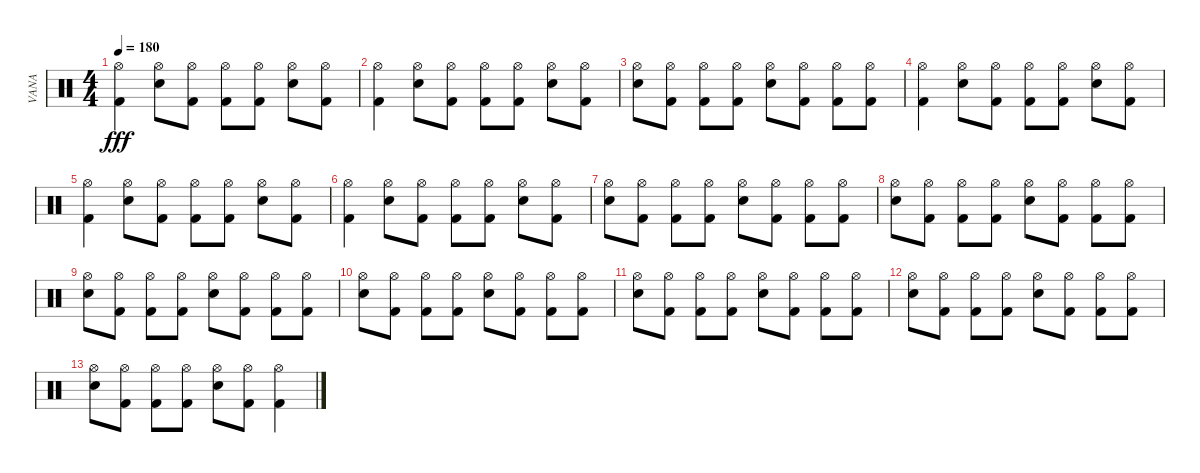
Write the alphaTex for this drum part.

\track ("VANA" "VANA") {instrument percussion}
\staff {score}
\articulation defaults
\ts (4 4)
\tempo 180
\clef neutral
\ks c
("Kick (hit) 2" "Hi-Hat (open)").4{dy fff} ("Hi-Hat (open)" "Electric Snare (hit)").8 ("Hi-Hat (open)" "Kick (hit) 2").8 ("Hi-Hat (open)" "Kick (hit) 2").8 ("Hi-Hat (open)" "Kick (hit) 2").8 ("Hi-Hat (open)" "Electric Snare (hit)").8 ("Hi-Hat (open)" "Kick (hit) 2").8 |
("Kick (hit) 2" "Hi-Hat (open)").4 ("Hi-Hat (open)" "Electric Snare (hit)").8 ("Hi-Hat (open)" "Kick (hit) 2").8 ("Hi-Hat (open)" "Kick (hit) 2").8 ("Hi-Hat (open)" "Kick (hit) 2").8 ("Hi-Hat (open)" "Electric Snare (hit)").8 ("Hi-Hat (open)" "Kick (hit) 2").8 |
("Hi-Hat (open)" "Electric Snare (hit)").8 ("Hi-Hat (open)" "Kick (hit) 2").8 ("Hi-Hat (open)" "Kick (hit) 2").8 ("Hi-Hat (open)" "Kick (hit) 2").8 ("Hi-Hat (open)" "Electric Snare (hit)").8 ("Hi-Hat (open)" "Kick (hit) 2").8 ("Hi-Hat (open)" "Kick (hit) 2").8 ("Hi-Hat (open)" "Kick (hit) 2").8 |
("Kick (hit) 2" "Hi-Hat (open)").4 ("Hi-Hat (open)" "Electric Snare (hit)").8 ("Hi-Hat (open)" "Kick (hit) 2").8 ("Hi-Hat (open)" "Kick (hit) 2").8 ("Hi-Hat (open)" "Kick (hit) 2").8 ("Hi-Hat (open)" "Electric Snare (hit)").8 ("Hi-Hat (open)" "Kick (hit) 2").8 |
("Kick (hit) 2" "Hi-Hat (open)").4 ("Hi-Hat (open)" "Electric Snare (hit)").8 ("Hi-Hat (open)" "Kick (hit) 2").8 ("Hi-Hat (open)" "Kick (hit) 2").8 ("Hi-Hat (open)" "Kick (hit) 2").8 ("Hi-Hat (open)" "Electric Snare (hit)").8 ("Hi-Hat (open)" "Kick (hit) 2").8 |
("Kick (hit) 2" "Hi-Hat (open)").4 ("Hi-Hat (open)" "Electric Snare (hit)").8 ("Hi-Hat (open)" "Kick (hit) 2").8 ("Hi-Hat (open)" "Kick (hit) 2").8 ("Hi-Hat (open)" "Kick (hit) 2").8 ("Hi-Hat (open)" "Electric Snare (hit)").8 ("Hi-Hat (open)" "Kick (hit) 2").8 |
("Hi-Hat (open)" "Electric Snare (hit)").8 ("Hi-Hat (open)" "Kick (hit) 2").8 ("Hi-Hat (open)" "Kick (hit) 2").8 ("Hi-Hat (open)" "Kick (hit) 2").8 ("Hi-Hat (open)" "Electric Snare (hit)").8 ("Hi-Hat (open)" "Kick (hit) 2").8 ("Hi-Hat (open)" "Kick (hit) 2").8 ("Hi-Hat (open)" "Kick (hit) 2").8 |
("Hi-Hat (open)" "Electric Snare (hit)").8 ("Hi-Hat (open)" "Kick (hit) 2").8 ("Hi-Hat (open)" "Kick (hit) 2").8 ("Hi-Hat (open)" "Kick (hit) 2").8 ("Hi-Hat (open)" "Electric Snare (hit)").8 ("Hi-Hat (open)" "Kick (hit) 2").8 ("Hi-Hat (open)" "Kick (hit) 2").8 ("Hi-Hat (open)" "Kick (hit) 2").8 |
("Hi-Hat (open)" "Electric Snare (hit)").8 ("Hi-Hat (open)" "Kick (hit) 2").8 ("Hi-Hat (open)" "Kick (hit) 2").8 ("Hi-Hat (open)" "Kick (hit) 2").8 ("Hi-Hat (open)" "Electric Snare (hit)").8 ("Hi-Hat (open)" "Kick (hit) 2").8 ("Hi-Hat (open)" "Kick (hit) 2").8 ("Hi-Hat (open)" "Kick (hit) 2").8 |
("Hi-Hat (open)" "Electric Snare (hit)").8 ("Hi-Hat (open)" "Kick (hit) 2").8 ("Hi-Hat (open)" "Kick (hit) 2").8 ("Hi-Hat (open)" "Kick (hit) 2").8 ("Hi-Hat (open)" "Electric Snare (hit)").8 ("Hi-Hat (open)" "Kick (hit) 2").8 ("Hi-Hat (open)" "Kick (hit) 2").8 ("Hi-Hat (open)" "Kick (hit) 2").8 |
("Hi-Hat (open)" "Electric Snare (hit)").8 ("Hi-Hat (open)" "Kick (hit) 2").8 ("Hi-Hat (open)" "Kick (hit) 2").8 ("Hi-Hat (open)" "Kick (hit) 2").8 ("Hi-Hat (open)" "Electric Snare (hit)").8 ("Hi-Hat (open)" "Kick (hit) 2").8 ("Hi-Hat (open)" "Kick (hit) 2").8 ("Hi-Hat (open)" "Kick (hit) 2").8 |
("Hi-Hat (open)" "Electric Snare (hit)").8 ("Hi-Hat (open)" "Kick (hit) 2").8 ("Hi-Hat (open)" "Kick (hit) 2").8 ("Hi-Hat (open)" "Kick (hit) 2").8 ("Hi-Hat (open)" "Electric Snare (hit)").8 ("Hi-Hat (open)" "Kick (hit) 2").8 ("Hi-Hat (open)" "Kick (hit) 2").8 ("Hi-Hat (open)" "Kick (hit) 2").8 |
("Hi-Hat (open)" "Electric Snare (hit)").8 ("Hi-Hat (open)" "Kick (hit) 2").8 ("Hi-Hat (open)" "Kick (hit) 2").8 ("Hi-Hat (open)" "Kick (hit) 2").8 ("Hi-Hat (open)" "Electric Snare (hit)").8 ("Hi-Hat (open)" "Kick (hit) 2").8 ("Hi-Hat (open)" "Kick (hit) 2").4
